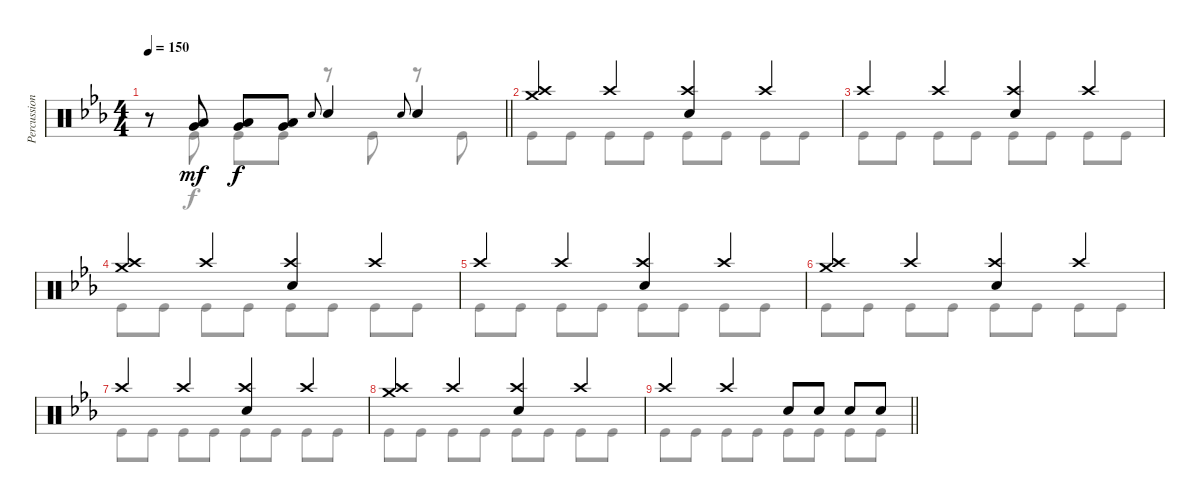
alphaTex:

\track ("Percussion" "Percussion") {instrument percussion}
\staff {score}
\articulation defaults
\voice
\ts (4 4)
\tempo 150
\clef neutral
\barLineRight lightlight
\ks cminor
r.8{dy f} ("Low Tom (hit)" "Very Low Tom (hit)").8{dy mf} ("Low Tom (hit)" "Very Low Tom (hit)").8{dy f} ("Low Tom (hit)" "Very Low Tom (hit)").8 "Electric Snare (hit)".8{gr onbeat} "Electric Snare (hit)".4 "Electric Snare (hit)".8{gr onbeat} "Electric Snare (hit)".4 |
\section ("" "")
("Crash medium (hit)" "Crash high (hit)").4 "Crash high (hit)".4 ("Crash high (hit)" "Electric Snare (hit)").4 "Crash high (hit)".4 |
"Crash high (hit)".4 "Crash high (hit)".4 ("Crash high (hit)" "Electric Snare (hit)").4 "Crash high (hit)".4 |
("Crash medium (hit)" "Crash high (hit)").4 "Crash high (hit)".4 ("Crash high (hit)" "Electric Snare (hit)").4 "Crash high (hit)".4 |
"Crash high (hit)".4 "Crash high (hit)".4 ("Crash high (hit)" "Electric Snare (hit)").4 "Crash high (hit)".4 |
("Crash medium (hit)" "Crash high (hit)").4 "Crash high (hit)".4 ("Crash high (hit)" "Electric Snare (hit)").4 "Crash high (hit)".4 |
"Crash high (hit)".4 "Crash high (hit)".4 ("Crash high (hit)" "Electric Snare (hit)").4 "Crash high (hit)".4 |
("Crash medium (hit)" "Crash high (hit)").4 "Crash high (hit)".4 ("Crash high (hit)" "Electric Snare (hit)").4 "Crash high (hit)".4 |
\barLineRight lightlight "Crash high (hit)".4 "Crash high (hit)".4 "Electric Snare (hit)".8 "Electric Snare (hit)".8 "Electric Snare (hit)".8 "Electric Snare (hit)".8
\voice
\clef neutral
\ottava regular
\simile none
\barLineRight lightlight
\ks cminor
r.8{dy f} "Kick (hit)".8 "Kick (hit)".8 "Kick (hit)".8 r.8 "Kick (hit)".8 r.8 "Kick (hit)".8 |
"Kick (hit)".8 "Kick (hit)".8 "Kick (hit)".8 "Kick (hit)".8 "Kick (hit)".8 "Kick (hit)".8 "Kick (hit)".8 "Kick (hit)".8 |
"Kick (hit)".8 "Kick (hit)".8 "Kick (hit)".8 "Kick (hit)".8 "Kick (hit)".8 "Kick (hit)".8 "Kick (hit)".8 "Kick (hit)".8 |
"Kick (hit)".8 "Kick (hit)".8 "Kick (hit)".8 "Kick (hit)".8 "Kick (hit)".8 "Kick (hit)".8 "Kick (hit)".8 "Kick (hit)".8 |
"Kick (hit)".8 "Kick (hit)".8 "Kick (hit)".8 "Kick (hit)".8 "Kick (hit)".8 "Kick (hit)".8 "Kick (hit)".8 "Kick (hit)".8 |
"Kick (hit)".8 "Kick (hit)".8 "Kick (hit)".8 "Kick (hit)".8 "Kick (hit)".8 "Kick (hit)".8 "Kick (hit)".8 "Kick (hit)".8 |
"Kick (hit)".8 "Kick (hit)".8 "Kick (hit)".8 "Kick (hit)".8 "Kick (hit)".8 "Kick (hit)".8 "Kick (hit)".8 "Kick (hit)".8 |
"Kick (hit)".8 "Kick (hit)".8 "Kick (hit)".8 "Kick (hit)".8 "Kick (hit)".8 "Kick (hit)".8 "Kick (hit)".8 "Kick (hit)".8 |
\barLineRight lightlight "Kick (hit)".8 "Kick (hit)".8 "Kick (hit)".8 "Kick (hit)".8 "Kick (hit)".8 "Kick (hit)".8 "Kick (hit)".8 "Kick (hit)".8
